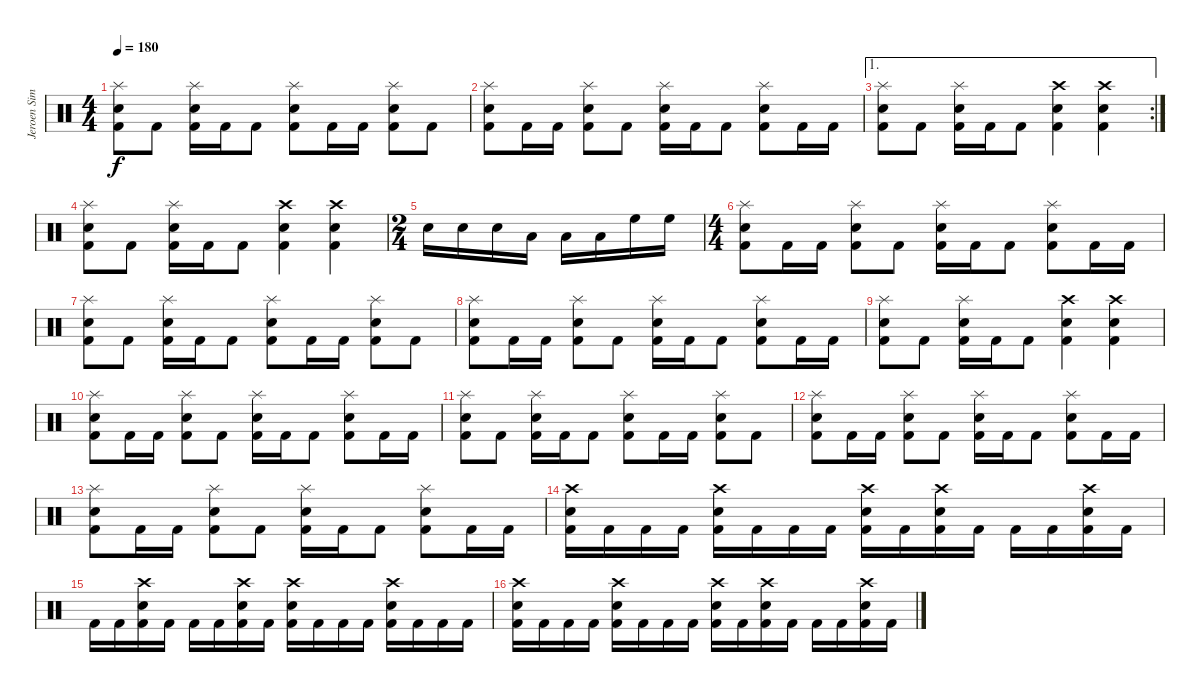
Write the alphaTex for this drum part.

\track ("Jeroen Simons" "Jeroen Sim") {instrument percussion}
\staff {score}
\articulation defaults
\ts (4 4)
\tempo 180
\clef neutral
\ks c
("Kick (hit) 2" "Snare (hit) 2" "Splash (hit)").8{dy f} "Kick (hit) 2".8 ("Kick (hit) 2" "Snare (hit) 2" "Splash (hit)").16 "Kick (hit) 2".16 "Kick (hit) 2".8 ("Kick (hit) 2" "Snare (hit) 2" "Splash (hit)").8 "Kick (hit) 2".16 "Kick (hit) 2".16 ("Kick (hit) 2" "Snare (hit) 2" "Splash (hit)").8 "Kick (hit) 2".8 |
("Kick (hit) 2" "Snare (hit) 2" "Splash (hit)").8 "Kick (hit) 2".16 "Kick (hit) 2".16 ("Kick (hit) 2" "Snare (hit) 2" "Splash (hit)").8 "Kick (hit) 2".8 ("Kick (hit) 2" "Snare (hit) 2" "Splash (hit)").16 "Kick (hit) 2".16 "Kick (hit) 2".8 ("Kick (hit) 2" "Snare (hit) 2" "Splash (hit)").8 "Kick (hit) 2".16 "Kick (hit) 2".16 |
\ae 1
\rc 2
("Kick (hit) 2" "Snare (hit) 2" "Splash (hit)").8 "Kick (hit) 2".8 ("Kick (hit) 2" "Snare (hit) 2" "Splash (hit)").16 "Kick (hit) 2".16 "Kick (hit) 2".8 ("Kick (hit) 2" "Snare (hit) 2" "Crash high (hit)").4 ("Kick (hit) 2" "Snare (hit) 2" "Crash high (hit)").4 |
("Kick (hit) 2" "Snare (hit) 2" "Splash (hit)").8 "Kick (hit) 2".8 ("Kick (hit) 2" "Snare (hit) 2" "Splash (hit)").16 "Kick (hit) 2".16 "Kick (hit) 2".8 ("Kick (hit) 2" "Snare (hit) 2" "Crash high (hit)").4 ("Kick (hit) 2" "Snare (hit) 2" "Crash high (hit)").4 |
\ts (2 4)
"Snare (hit) 2".16 "Snare (hit) 2".16 "Snare (hit) 2".16 "Low Tom (hit)".16 "Low Tom (hit)".16 "Low Tom (hit)".16 "High Floor Tom (hit)".16 "High Floor Tom (hit)".16 |
\ts (4 4)
("Kick (hit) 2" "Snare (hit) 2" "Splash (hit)").8 "Kick (hit) 2".16 "Kick (hit) 2".16 ("Kick (hit) 2" "Snare (hit) 2" "Splash (hit)").8 "Kick (hit) 2".8 ("Kick (hit) 2" "Snare (hit) 2" "Splash (hit)").16 "Kick (hit) 2".16 "Kick (hit) 2".8 ("Kick (hit) 2" "Snare (hit) 2" "Splash (hit)").8 "Kick (hit) 2".16 "Kick (hit) 2".16 |
("Kick (hit) 2" "Snare (hit) 2" "Splash (hit)").8 "Kick (hit) 2".8 ("Kick (hit) 2" "Snare (hit) 2" "Splash (hit)").16 "Kick (hit) 2".16 "Kick (hit) 2".8 ("Kick (hit) 2" "Snare (hit) 2" "Splash (hit)").8 "Kick (hit) 2".16 "Kick (hit) 2".16 ("Kick (hit) 2" "Snare (hit) 2" "Splash (hit)").8 "Kick (hit) 2".8 |
("Kick (hit) 2" "Snare (hit) 2" "Splash (hit)").8 "Kick (hit) 2".16 "Kick (hit) 2".16 ("Kick (hit) 2" "Snare (hit) 2" "Splash (hit)").8 "Kick (hit) 2".8 ("Kick (hit) 2" "Snare (hit) 2" "Splash (hit)").16 "Kick (hit) 2".16 "Kick (hit) 2".8 ("Kick (hit) 2" "Snare (hit) 2" "Splash (hit)").8 "Kick (hit) 2".16 "Kick (hit) 2".16 |
("Kick (hit) 2" "Snare (hit) 2" "Splash (hit)").8 "Kick (hit) 2".8 ("Kick (hit) 2" "Snare (hit) 2" "Splash (hit)").16 "Kick (hit) 2".16 "Kick (hit) 2".8 ("Kick (hit) 2" "Snare (hit) 2" "Crash high (hit)").4 ("Kick (hit) 2" "Snare (hit) 2" "Crash high (hit)").4 |
("Kick (hit) 2" "Snare (hit) 2" "Splash (hit)").8 "Kick (hit) 2".16 "Kick (hit) 2".16 ("Kick (hit) 2" "Snare (hit) 2" "Splash (hit)").8 "Kick (hit) 2".8 ("Kick (hit) 2" "Snare (hit) 2" "Splash (hit)").16 "Kick (hit) 2".16 "Kick (hit) 2".8 ("Kick (hit) 2" "Snare (hit) 2" "Splash (hit)").8 "Kick (hit) 2".16 "Kick (hit) 2".16 |
("Kick (hit) 2" "Snare (hit) 2" "Splash (hit)").8 "Kick (hit) 2".8 ("Kick (hit) 2" "Snare (hit) 2" "Splash (hit)").16 "Kick (hit) 2".16 "Kick (hit) 2".8 ("Kick (hit) 2" "Snare (hit) 2" "Splash (hit)").8 "Kick (hit) 2".16 "Kick (hit) 2".16 ("Kick (hit) 2" "Snare (hit) 2" "Splash (hit)").8 "Kick (hit) 2".8 |
("Kick (hit) 2" "Snare (hit) 2" "Splash (hit)").8 "Kick (hit) 2".16 "Kick (hit) 2".16 ("Kick (hit) 2" "Snare (hit) 2" "Splash (hit)").8 "Kick (hit) 2".8 ("Kick (hit) 2" "Snare (hit) 2" "Splash (hit)").16 "Kick (hit) 2".16 "Kick (hit) 2".8 ("Kick (hit) 2" "Snare (hit) 2" "Splash (hit)").8 "Kick (hit) 2".16 "Kick (hit) 2".16 |
("Kick (hit) 2" "Snare (hit) 2" "Splash (hit)").8 "Kick (hit) 2".16 "Kick (hit) 2".16 ("Kick (hit) 2" "Snare (hit) 2" "Splash (hit)").8 "Kick (hit) 2".8 ("Kick (hit) 2" "Snare (hit) 2" "Splash (hit)").16 "Kick (hit) 2".16 "Kick (hit) 2".8 ("Kick (hit) 2" "Snare (hit) 2" "Splash (hit)").8 "Kick (hit) 2".16 "Kick (hit) 2".16 |
("Kick (hit) 2" "Snare (hit) 2" "Crash high (hit)").16 "Kick (hit) 2".16 "Kick (hit) 2".16 "Kick (hit) 2".16 ("Kick (hit) 2" "Snare (hit) 2" "Crash high (hit)").16 "Kick (hit) 2".16 "Kick (hit) 2".16 "Kick (hit) 2".16 ("Kick (hit) 2" "Snare (hit) 2" "Crash high (hit)").16 "Kick (hit) 2".16 ("Kick (hit) 2" "Snare (hit) 2" "Crash high (hit)").16 "Kick (hit) 2".16 "Kick (hit) 2".16 "Kick (hit) 2".16 ("Kick (hit) 2" "Snare (hit) 2" "Crash high (hit)").16 "Kick (hit) 2".16 |
"Kick (hit) 2".16 "Kick (hit) 2".16 ("Kick (hit) 2" "Snare (hit) 2" "Crash high (hit)").16 "Kick (hit) 2".16 "Kick (hit) 2".16 "Kick (hit) 2".16 ("Kick (hit) 2" "Snare (hit) 2" "Crash high (hit)").16 "Kick (hit) 2".16 ("Kick (hit) 2" "Snare (hit) 2" "Crash high (hit)").16 "Kick (hit) 2".16 "Kick (hit) 2".16 "Kick (hit) 2".16 ("Kick (hit) 2" "Snare (hit) 2" "Crash high (hit)").16 "Kick (hit) 2".16 "Kick (hit) 2".16 "Kick (hit) 2".16 |
("Kick (hit) 2" "Snare (hit) 2" "Crash high (hit)").16 "Kick (hit) 2".16 "Kick (hit) 2".16 "Kick (hit) 2".16 ("Kick (hit) 2" "Snare (hit) 2" "Crash high (hit)").16 "Kick (hit) 2".16 "Kick (hit) 2".16 "Kick (hit) 2".16 ("Kick (hit) 2" "Snare (hit) 2" "Crash high (hit)").16 "Kick (hit) 2".16 ("Kick (hit) 2" "Snare (hit) 2" "Crash high (hit)").16 "Kick (hit) 2".16 "Kick (hit) 2".16 "Kick (hit) 2".16 ("Kick (hit) 2" "Snare (hit) 2" "Crash high (hit)").16 "Kick (hit) 2".16
